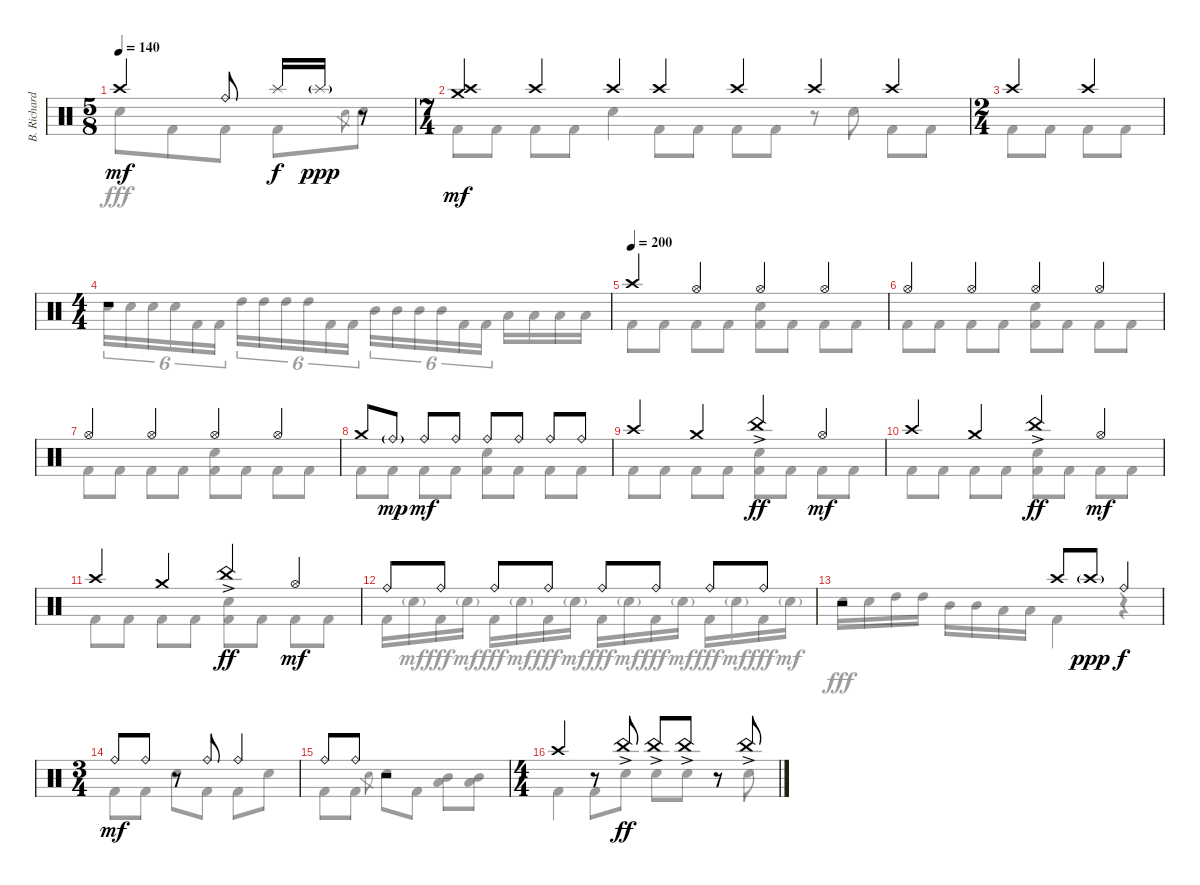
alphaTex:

\track ("B. Richardson Drums" "B. Richard") {instrument percussion}
\staff {score}
\articulation defaults
\voice
\ts (5 8)
\tempo 140
\clef neutral
\ks c "Crash high (hit)".4{dy mf} "Ride (bell)".8 "Splash (hit)".16{dy f} "Splash (hit)"{g}.16{dy ppp}
r.8 |
\ts (7 4)
("Crash high (hit)" "Crash medium (hit)").4{dy mf} "Crash high (hit)".4 "Crash high (hit)".4 "Crash high (hit)".4 "Crash high (hit)".4 "Crash high (hit)".4 "Crash high (hit)".4 |
\ts (2 4)
"Crash high (hit)".4 "Crash high (hit)".4 |
\ts (4 4)
r.1 |
\tempo (200)
"Crash high (hit)".4 "Hi-Hat (open)".4 "Hi-Hat (open)".4 "Hi-Hat (open)".4 |
"Hi-Hat (open)".4 "Hi-Hat (open)".4 "Hi-Hat (open)".4 "Hi-Hat (open)".4 |
"Hi-Hat (open)".4 "Hi-Hat (open)".4 "Hi-Hat (open)".4 "Hi-Hat (open)".4 |
"Crash medium (hit)".8 "Ride (bell)"{g}.8{dy mp} "Ride (bell)".8{dy mf} "Ride (bell)".8 "Ride (bell)".8 "Ride (bell)".8 "Ride (bell)".8 "Ride (bell)".8 |
"Crash high (hit)".4 "Crash medium (hit)".4 "China (hit)"{ac}.4{dy ff} "Hi-Hat (open)".4{dy mf} |
"Crash high (hit)".4 "Crash medium (hit)".4 "China (hit)"{ac}.4{dy ff} "Hi-Hat (open)".4{dy mf} |
"Crash high (hit)".4 "Crash medium (hit)".4 "China (hit)"{ac}.4{dy ff} "Hi-Hat (open)".4{dy mf} |
"Ride (bell)".8 "Ride (bell)".8 "Ride (bell)".8 "Ride (bell)".8 "Ride (bell)".8 "Ride (bell)".8 "Ride (bell)".8 "Ride (bell)".8 |
r.2 "Crash high (hit)".8 "Crash high (hit)"{g}.8{dy ppp} "Ride (bell)".4{dy f} |
\ts (3 4)
"Ride (bell)".8{dy mf} "Ride (bell)".8 r.8 "Ride (bell)".8 "Ride (bell)".4 |
"Ride (bell)".8 "Ride (bell)".8 r.2 |
\ts (4 4)
"Crash high (hit)".4 r.8 "China (hit)"{ac}.8{dy ff} "China (hit)"{ac}.8 "China (hit)"{ac}.8 r.8 "China (hit)"{ac}.8
\voice
\clef neutral
\ottava regular
\simile none
\ks c "Electric Snare (hit)".8{dy fff} "Kick (hit) 2".8 "Kick (hit) 2".8 "Kick (hit) 2".8 "Electric Snare (hit)".8{gr} "Electric Snare (hit)".8
|
"Kick (hit) 2".8 "Kick (hit) 2".8 "Kick (hit) 2".8 "Kick (hit) 2".8 "Electric Snare (hit)".4 "Kick (hit) 2".8 "Kick (hit) 2".8 "Kick (hit) 2".8 "Kick (hit) 2".8 r.8 "Electric Snare (hit)".8 "Kick (hit) 2".8 "Kick (hit) 2".8 |
"Kick (hit) 2".8 "Kick (hit) 2".8 "Kick (hit) 2".8 "Kick (hit) 2".8 |
"Electric Snare (hit)".16{tu (6 4)} "Electric Snare (hit)".16{tu (6 4)} "Electric Snare (hit)".16{tu (6 4)} "Electric Snare (hit)".16{tu (6 4)} "Kick (hit) 2".16{tu (6 4)} "Kick (hit) 2".16{tu (6 4)} "High Tom (hit)".16{tu (6 4)} "High Tom (hit)".16{tu (6 4)} "High Tom (hit)".16{tu (6 4)} "High Tom (hit)".16{tu (6 4)} "Kick (hit) 2".16{tu (6 4)} "Kick (hit) 2".16{tu (6 4)} "Mid Tom (hit)".16{tu (6 4)} "Mid Tom (hit)".16{tu (6 4)} "Mid Tom (hit)".16{tu (6 4)} "Mid Tom (hit)".16{tu (6 4)} "Kick (hit) 2".16{tu (6 4)} "Kick (hit) 2".16{tu (6 4)} "Low Tom (hit)".16 "Low Tom (hit)".16 "Low Tom (hit)".16 "Low Tom (hit)".16 |
"Kick (hit) 2".8 "Kick (hit) 2".8 "Kick (hit) 2".8 "Kick (hit) 2".8 ("Electric Snare (hit)" "Kick (hit) 2").8 "Kick (hit) 2".8 "Kick (hit) 2".8 "Kick (hit) 2".8 |
"Kick (hit) 2".8 "Kick (hit) 2".8 "Kick (hit) 2".8 "Kick (hit) 2".8 ("Electric Snare (hit)" "Kick (hit) 2").8 "Kick (hit) 2".8 "Kick (hit) 2".8 "Kick (hit) 2".8 |
"Kick (hit) 2".8 "Kick (hit) 2".8 "Kick (hit) 2".8 "Kick (hit) 2".8 ("Electric Snare (hit)" "Kick (hit) 2").8 "Kick (hit) 2".8 "Kick (hit) 2".8 "Kick (hit) 2".8 |
"Kick (hit) 2".8 "Kick (hit) 2".8 "Kick (hit) 2".8 "Kick (hit) 2".8 ("Electric Snare (hit)" "Kick (hit) 2").8 "Kick (hit) 2".8 "Kick (hit) 2".8 "Kick (hit) 2".8 |
"Kick (hit) 2".8 "Kick (hit) 2".8 "Kick (hit) 2".8 "Kick (hit) 2".8 ("Electric Snare (hit)" "Kick (hit) 2").8 "Kick (hit) 2".8 "Kick (hit) 2".8 "Kick (hit) 2".8 |
"Kick (hit) 2".8 "Kick (hit) 2".8 "Kick (hit) 2".8 "Kick (hit) 2".8 ("Electric Snare (hit)" "Kick (hit) 2").8 "Kick (hit) 2".8 "Kick (hit) 2".8 "Kick (hit) 2".8 |
"Kick (hit) 2".8 "Kick (hit) 2".8 "Kick (hit) 2".8 "Kick (hit) 2".8 ("Electric Snare (hit)" "Kick (hit) 2").8 "Kick (hit) 2".8 "Kick (hit) 2".8 "Kick (hit) 2".8 |
"Kick (hit) 2".16 "Electric Snare (hit)"{g}.16{dy mf} "Kick (hit) 2".16{dy fff} "Electric Snare (hit)"{g}.16{dy mf} "Kick (hit) 2".16{dy fff} "Electric Snare (hit)"{g}.16{dy mf} "Kick (hit) 2".16{dy fff} "Electric Snare (hit)"{g}.16{dy mf} "Kick (hit) 2".16{dy fff} "Electric Snare (hit)"{g}.16{dy mf} "Kick (hit) 2".16{dy fff} "Electric Snare (hit)"{g}.16{dy mf} "Kick (hit) 2".16{dy fff} "Electric Snare (hit)"{g}.16{dy mf} "Kick (hit) 2".16{dy fff} "Electric Snare (hit)"{g}.16{dy mf} |
"Electric Snare (hit)".16{dy fff} "Electric Snare (hit)".16 "High Tom (hit)".16 "High Tom (hit)".16 "Mid Tom (hit)".16 "Mid Tom (hit)".16 "Low Tom (hit)".16 "Low Tom (hit)".16 "Kick (hit) 2".4 r.4 |
"Kick (hit) 2".8 "Kick (hit) 2".8 "Electric Snare (hit)".8 "Kick (hit) 2".8 "Kick (hit) 2".8 "Electric Snare (hit)".8 |
"Kick (hit) 2".8 "Kick (hit) 2".8 "Electric Snare (hit)".8{gr} "Electric Snare (hit)".8 "Kick (hit) 2".8 ("Mid Tom (hit)" "Low Tom (hit)").8 ("Mid Tom (hit)" "Low Tom (hit)").8 |
"Kick (hit) 2".4 "Kick (hit) 2".8 "Electric Snare (hit)".8 "Electric Snare (hit)".8 "Electric Snare (hit)".8 r.8 "Electric Snare (hit)".8
